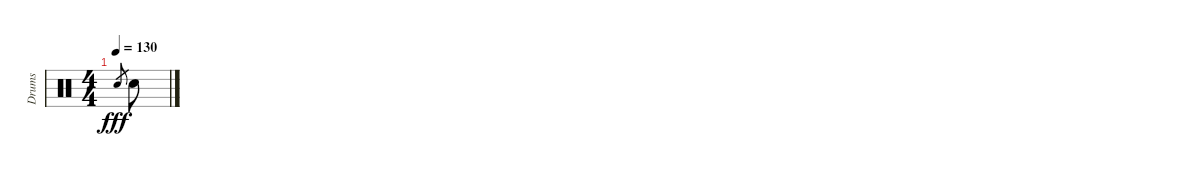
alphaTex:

\track ("Drums" "Drums") {instrument percussion}
\staff {score}
\articulation defaults
\ts (4 4)
\tempo 130
\clef neutral
\ks c "Snare (hit) 2".8{gr dy fff} "Snare (hit) 2".8
